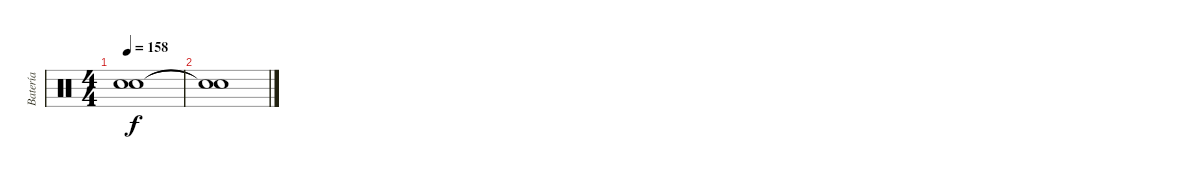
\track ("Batería" "Batería") {instrument percussion}
\staff {score}
\articulation defaults
\ts (4 4)
\tempo 158
\clef neutral
\ks c
("Snare (hit)"{t} "Snare (hit)"{t}).1{dy f} |
("Snare (hit)"{t} "Snare (hit)"{t}).1
